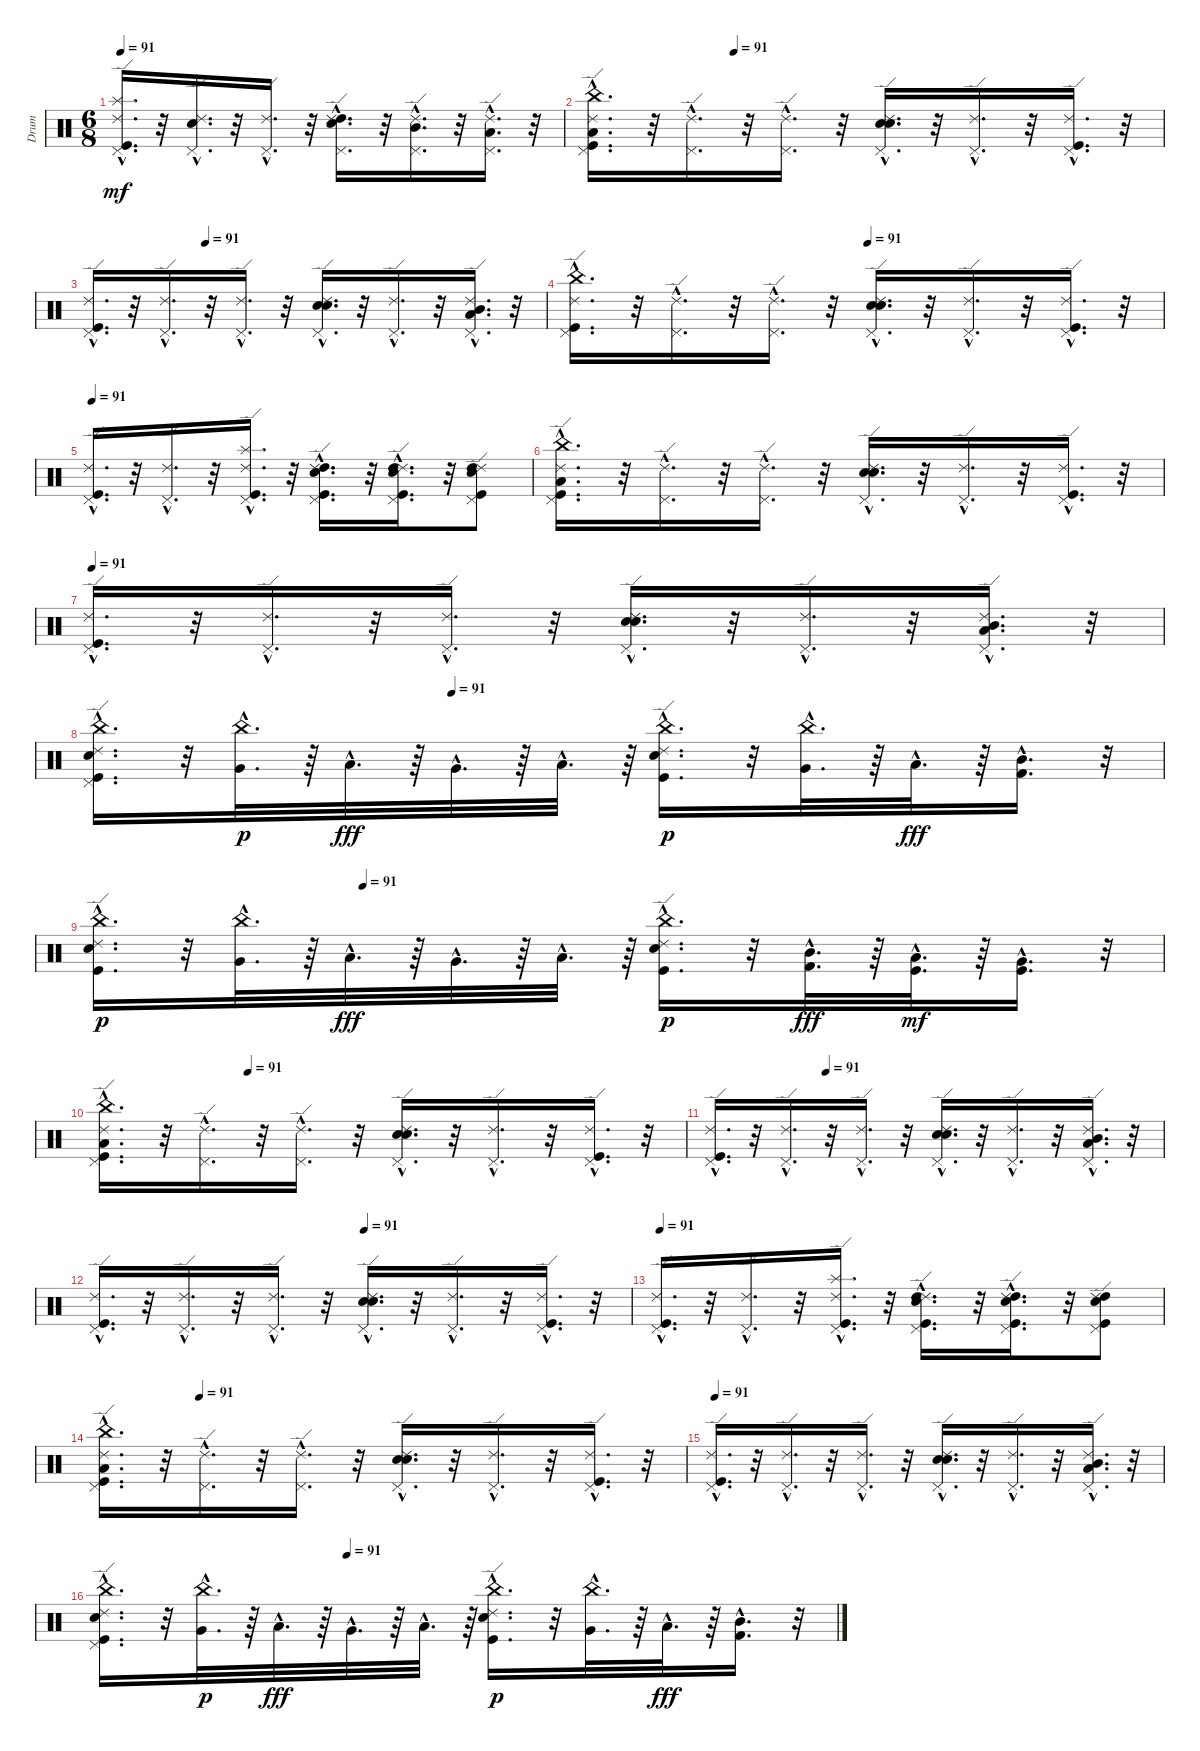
\track ("Drum" "Drum") {instrument percussion}
\staff {score}
\articulation defaults
\ts (6 8)
\tempo 91
\clef neutral
\ks c
("Ride (edge) 2"{hac} "Splash (hit)"{hac} "Kick (hit)"{hac} "Pedal Hi-Hat (hit)"{hac}).16{d dy mf} r.32 ("Snare (hit) 2"{hac} "Ride (edge) 2"{hac} "Pedal Hi-Hat (hit)"{hac}).16{d} r.32 ("Ride (edge) 2"{hac} "Pedal Hi-Hat (hit)"{hac}).16{d} r.32 ("Pedal Hi-Hat (hit)"{hac} "Snare (hit) 2"{hac} "High Tom (hit)"{hac} "Ride (edge) 2"{hac}).16{d} r.32 ("Pedal Hi-Hat (hit)"{hac} "Ride (edge) 2"{hac} "Mid Tom (hit)"{hac}).16{d} r.32 ("Pedal Hi-Hat (hit)"{hac} "Low Tom (hit)"{hac} "Ride (edge) 2"{hac}).16{d} r.32 |
\tempo (91 0.25)
("Low Floor Tom (hit)"{hac} "Kick (hit)"{hac} "Pedal Hi-Hat (hit)"{hac} "Ride (edge) 2"{hac} "China (hit)"{hac}).16{d} r.32 ("Pedal Hi-Hat (hit)"{hac} "Ride (edge) 2"{hac}).16{d} r.32 ("Pedal Hi-Hat (hit)"{hac} "Ride (edge) 2"{hac}).16{d} r.32 ("Pedal Hi-Hat (hit)"{hac} "Snare (hit) 2"{hac} "Ride (edge) 2"{hac} "Hand Clap (hit)"{hac}).16{d} r.32 ("Pedal Hi-Hat (hit)"{hac} "Ride (edge) 2"{hac}).16{d} r.32 ("Kick (hit)"{hac} "Pedal Hi-Hat (hit)"{hac} "Ride (edge) 2"{hac}).16{d} r.32 |
\tempo (91 0.25)
("Ride (edge) 2"{hac} "Pedal Hi-Hat (hit)"{hac} "Kick (hit)"{hac}).16{d} r.32 ("Ride (edge) 2"{hac} "Pedal Hi-Hat (hit)"{hac}).16{d} r.32 ("Ride (edge) 2"{hac} "Pedal Hi-Hat (hit)"{hac}).16{d} r.32 ("Hand Clap (hit)"{hac} "Ride (edge) 2"{hac} "Snare (hit) 2"{hac} "Pedal Hi-Hat (hit)"{hac}).16{d} r.32 ("Ride (edge) 2"{hac} "Pedal Hi-Hat (hit)"{hac}).16{d} r.32 ("Low Floor Tom (hit)"{hac} "Mid Tom (hit)"{hac} "Ride (edge) 2"{hac} "Pedal Hi-Hat (hit)"{hac}).16{d} r.32 |
\tempo (91 0.5)
("China (hit)"{hac} "Ride (edge) 2"{hac} "Pedal Hi-Hat (hit)"{hac} "Kick (hit)"{hac}).16{d} r.32 ("Ride (edge) 2"{hac} "Pedal Hi-Hat (hit)"{hac}).16{d} r.32 ("Ride (edge) 2"{hac} "Pedal Hi-Hat (hit)"{hac}).16{d} r.32 ("Hand Clap (hit)"{hac} "Ride (edge) 2"{hac} "Snare (hit) 2"{hac} "Pedal Hi-Hat (hit)"{hac}).16{d} r.32 ("Ride (edge) 2"{hac} "Pedal Hi-Hat (hit)"{hac}).16{d} r.32 ("Kick (hit)"{hac} "Ride (edge) 2"{hac} "Pedal Hi-Hat (hit)"{hac}).16{d} r.32 |
\tempo 91
("Pedal Hi-Hat (hit)"{hac} "Ride (edge) 2"{hac} "Kick (hit)"{hac}).16{d} r.32 ("Pedal Hi-Hat (hit)"{hac} "Ride (edge) 2"{hac}).16{d} r.32 ("Splash (hit)"{hac} "Kick (hit)"{hac} "Ride (edge) 2"{hac} "Pedal Hi-Hat (hit)"{hac}).16{d} r.32 ("Kick (hit)"{hac} "Pedal Hi-Hat (hit)"{hac} "Snare (hit) 2"{hac} "High Tom (hit)"{hac} "Ride (edge) 2"{hac}).16{d} r.32 ("Pedal Hi-Hat (hit)"{hac} "Snare (hit) 2"{hac} "Ride (edge) 2"{hac} "High Tom (hit)"{hac} "Kick (hit)"{hac}).16{d} r.32 ("Kick (hit)" "Ride (edge) 2" "Pedal Hi-Hat (hit)" "High Tom (hit)" "Snare (hit) 2").8 |
("Low Floor Tom (hit)"{hac} "Kick (hit)"{hac} "Pedal Hi-Hat (hit)"{hac} "China (hit)"{hac} "Ride (edge) 2"{hac}).16{d} r.32 ("Pedal Hi-Hat (hit)"{hac} "Ride (edge) 2"{hac}).16{d} r.32 ("Ride (edge) 2"{hac} "Pedal Hi-Hat (hit)"{hac}).16{d} r.32 ("Snare (hit) 2"{hac} "Ride (edge) 2"{hac} "Hand Clap (hit)"{hac} "Pedal Hi-Hat (hit)"{hac}).16{d} r.32 ("Ride (edge) 2"{hac} "Pedal Hi-Hat (hit)"{hac}).16{d} r.32 ("Kick (hit)"{hac} "Pedal Hi-Hat (hit)"{hac} "Ride (edge) 2"{hac}).16{d} r.32 |
\tempo 91
("Kick (hit)"{hac} "Pedal Hi-Hat (hit)"{hac} "Ride (edge) 2"{hac}).16{d} r.32 ("Pedal Hi-Hat (hit)"{hac} "Ride (edge) 2"{hac}).16{d} r.32 ("Pedal Hi-Hat (hit)"{hac} "Ride (edge) 2"{hac}).16{d} r.32 ("Pedal Hi-Hat (hit)"{hac} "Snare (hit) 2"{hac} "Ride (edge) 2"{hac} "Hand Clap (hit)"{hac}).16{d} r.32 ("Pedal Hi-Hat (hit)"{hac} "Ride (edge) 2"{hac}).16{d} r.32 ("Pedal Hi-Hat (hit)"{hac} "Ride (edge) 2"{hac} "Mid Tom (hit)"{hac} "Low Floor Tom (hit)"{hac}).16{d} r.32 |
\tempo (91 0.3333333333333333)
("Snare (hit) 2"{hac} "Kick (hit)"{hac} "Ride (edge) 2"{hac} "Pedal Hi-Hat (hit)"{hac} "China (hit)"{hac}).16{d} r.32 ("Very Low Tom (hit)"{hac} "China (hit)"{hac}).32{d dy p} r.64 "Low Floor Tom (hit)"{hac}.32{d dy fff} r.64 "Very Low Tom (hit)"{hac}.32{d} r.64 "Low Floor Tom (hit)"{hac}.32{d} r.64 ("Snare (hit) 2"{hac} "Ride (edge) 2"{hac} "Kick (hit)"{hac} "China (hit)"{hac}).16{d dy p} r.32 ("Very Low Tom (hit)"{hac} "China (hit)"{hac}).32{d} r.64 "Low Floor Tom (hit)"{hac}.32{d dy fff} r.64 ("Kick (hit) 2"{hac} "Mid Tom (hit)"{hac}).16{d} r.32 |
\tempo (91 0.25)
("Snare (hit) 2"{hac} "Kick (hit)"{hac} "Ride (edge) 2"{hac} "China (hit)"{hac}).16{d dy p} r.32 ("Very Low Tom (hit)"{hac} "China (hit)"{hac}).32{d} r.64 "Low Floor Tom (hit)"{hac}.32{d dy fff} r.64 "Very Low Tom (hit)"{hac}.32{d} r.64 "Low Floor Tom (hit)"{hac}.32{d} r.64 ("Ride (edge) 2"{hac} "Snare (hit) 2"{hac} "Kick (hit)"{hac} "China (hit)"{hac}).16{d dy p} r.32 ("Kick (hit) 2"{hac} "Mid Tom (hit)"{hac}).32{d dy fff} r.64 ("Low Tom (hit)"{hac} "Kick (hit)"{hac}).32{d dy mf} r.64 ("Very Low Tom (hit)"{hac} "Kick (hit)"{hac}).16{d} r.32 |
\tempo (91 0.25)
("China (hit)"{hac} "Ride (edge) 2"{hac} "Pedal Hi-Hat (hit)"{hac} "Kick (hit)"{hac} "Low Floor Tom (hit)"{hac}).16{d} r.32 ("Ride (edge) 2"{hac} "Pedal Hi-Hat (hit)"{hac}).16{d} r.32 ("Ride (edge) 2"{hac} "Pedal Hi-Hat (hit)"{hac}).16{d} r.32 ("Hand Clap (hit)"{hac} "Ride (edge) 2"{hac} "Snare (hit) 2"{hac} "Pedal Hi-Hat (hit)"{hac}).16{d} r.32 ("Ride (edge) 2"{hac} "Pedal Hi-Hat (hit)"{hac}).16{d} r.32 ("Ride (edge) 2"{hac} "Pedal Hi-Hat (hit)"{hac} "Kick (hit)"{hac}).16{d} r.32 |
\tempo (91 0.25)
("Kick (hit)"{hac} "Pedal Hi-Hat (hit)"{hac} "Ride (edge) 2"{hac}).16{d} r.32 ("Pedal Hi-Hat (hit)"{hac} "Ride (edge) 2"{hac}).16{d} r.32 ("Pedal Hi-Hat (hit)"{hac} "Ride (edge) 2"{hac}).16{d} r.32 ("Pedal Hi-Hat (hit)"{hac} "Snare (hit) 2"{hac} "Ride (edge) 2"{hac} "Hand Clap (hit)"{hac}).16{d} r.32 ("Pedal Hi-Hat (hit)"{hac} "Ride (edge) 2"{hac}).16{d} r.32 ("Pedal Hi-Hat (hit)"{hac} "Ride (edge) 2"{hac} "Mid Tom (hit)"{hac} "Low Floor Tom (hit)"{hac}).16{d} r.32 |
\tempo (91 0.5)
("Kick (hit)"{hac} "Pedal Hi-Hat (hit)"{hac} "Ride (edge) 2"{hac}).16{d} r.32 ("Pedal Hi-Hat (hit)"{hac} "Ride (edge) 2"{hac}).16{d} r.32 ("Pedal Hi-Hat (hit)"{hac} "Ride (edge) 2"{hac}).16{d} r.32 ("Pedal Hi-Hat (hit)"{hac} "Snare (hit) 2"{hac} "Ride (edge) 2"{hac} "Hand Clap (hit)"{hac}).16{d} r.32 ("Pedal Hi-Hat (hit)"{hac} "Ride (edge) 2"{hac}).16{d} r.32 ("Pedal Hi-Hat (hit)"{hac} "Ride (edge) 2"{hac} "Kick (hit)"{hac}).16{d} r.32 |
\tempo 91
("Ride (edge) 2"{hac} "Kick (hit)"{hac} "Pedal Hi-Hat (hit)"{hac}).16{d} r.32 ("Pedal Hi-Hat (hit)"{hac} "Ride (edge) 2"{hac}).16{d} r.32 ("Kick (hit)"{hac} "Pedal Hi-Hat (hit)"{hac} "Splash (hit)"{hac} "Ride (edge) 2"{hac}).16{d} r.32 ("Ride (edge) 2"{hac} "Snare (hit) 2"{hac} "Kick (hit)"{hac} "High Tom (hit)"{hac} "Pedal Hi-Hat (hit)"{hac}).16{d} r.32 ("High Tom (hit)"{hac} "Ride (edge) 2"{hac} "Snare (hit) 2"{hac} "Kick (hit)"{hac} "Pedal Hi-Hat (hit)"{hac}).16{d} r.32 ("Snare (hit) 2" "Kick (hit)" "High Tom (hit)" "Ride (edge) 2" "Pedal Hi-Hat (hit)").8 |
\tempo (91 0.16666666666666666)
("Kick (hit)"{hac} "China (hit)"{hac} "Low Floor Tom (hit)"{hac} "Pedal Hi-Hat (hit)"{hac} "Ride (edge) 2"{hac}).16{d} r.32 ("Ride (edge) 2"{hac} "Pedal Hi-Hat (hit)"{hac}).16{d} r.32 ("Pedal Hi-Hat (hit)"{hac} "Ride (edge) 2"{hac}).16{d} r.32 ("Snare (hit) 2"{hac} "Hand Clap (hit)"{hac} "Ride (edge) 2"{hac} "Pedal Hi-Hat (hit)"{hac}).16{d} r.32 ("Ride (edge) 2"{hac} "Pedal Hi-Hat (hit)"{hac}).16{d} r.32 ("Pedal Hi-Hat (hit)"{hac} "Ride (edge) 2"{hac} "Kick (hit)"{hac}).16{d} r.32 |
\tempo 91
("Ride (edge) 2"{hac} "Pedal Hi-Hat (hit)"{hac} "Kick (hit)"{hac}).16{d} r.32 ("Ride (edge) 2"{hac} "Pedal Hi-Hat (hit)"{hac}).16{d} r.32 ("Ride (edge) 2"{hac} "Pedal Hi-Hat (hit)"{hac}).16{d} r.32 ("Hand Clap (hit)"{hac} "Ride (edge) 2"{hac} "Snare (hit) 2"{hac} "Pedal Hi-Hat (hit)"{hac}).16{d} r.32 ("Ride (edge) 2"{hac} "Pedal Hi-Hat (hit)"{hac}).16{d} r.32 ("Low Floor Tom (hit)"{hac} "Mid Tom (hit)"{hac} "Ride (edge) 2"{hac} "Pedal Hi-Hat (hit)"{hac}).16{d} r.32 |
\tempo (91 0.3333333333333333)
("Snare (hit) 2"{hac} "Kick (hit)"{hac} "Ride (edge) 2"{hac} "Pedal Hi-Hat (hit)"{hac} "China (hit)"{hac}).16{d} r.32 ("Very Low Tom (hit)"{hac} "China (hit)"{hac}).32{d dy p} r.64 "Low Floor Tom (hit)"{hac}.32{d dy fff} r.64 "Very Low Tom (hit)"{hac}.32{d} r.64 "Low Floor Tom (hit)"{hac}.32{d} r.64 ("Snare (hit) 2"{hac} "Ride (edge) 2"{hac} "Kick (hit)"{hac} "China (hit)"{hac}).16{d dy p} r.32 ("Very Low Tom (hit)"{hac} "China (hit)"{hac}).32{d} r.64 "Low Floor Tom (hit)"{hac}.32{d dy fff} r.64 ("Kick (hit) 2"{hac} "Mid Tom (hit)"{hac}).16{d} r.32
